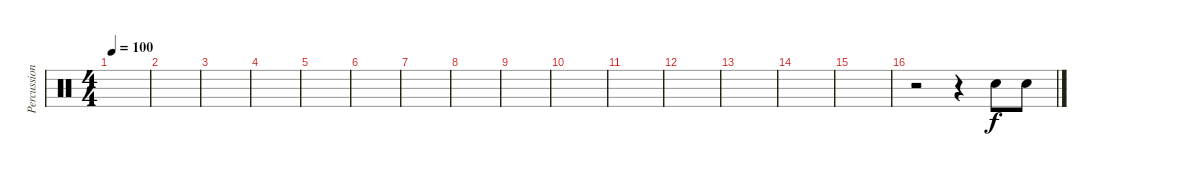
\track ("Percussion" "Percussion") {instrument percussion}
\staff {score}
\articulation defaults
\ts (4 4)
\tempo 100
\clef neutral
\ks c
|
|
|
|
|
|
|
|
|
|
|
|
|
|
|
r.2 r.4 "Snare (hit) 2".8 "Snare (hit) 2".8
